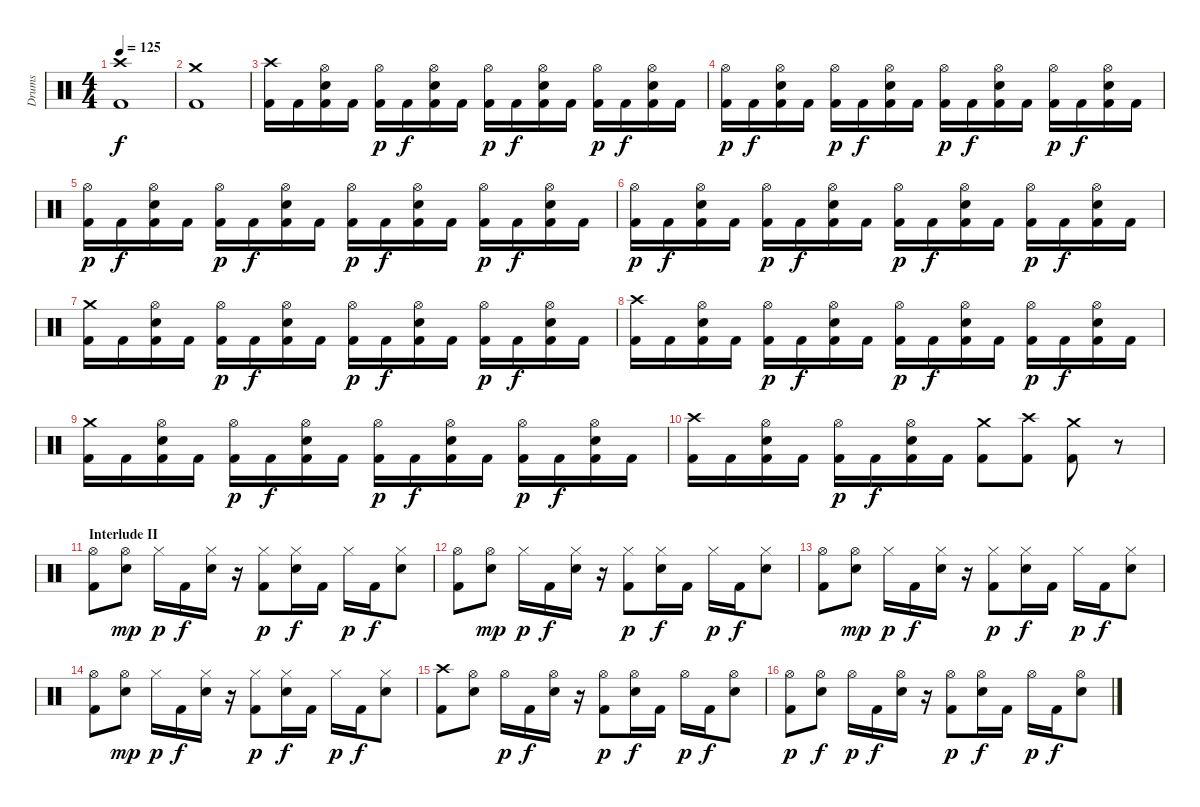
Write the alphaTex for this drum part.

\track ("Drums" "Drums") {instrument percussion}
\staff {score}
\articulation defaults
\ts (4 4)
\tempo 125
\clef neutral
\ks c
("Crash high (hit)" "Kick (hit) 2").1{dy f} |
("Crash medium (hit)" "Kick (hit) 2").1 |
("Crash high (hit)" "Kick (hit) 2").16 "Kick (hit) 2".16 ("Hi-Hat (open)" "Snare (hit) 2" "Kick (hit) 2").16 "Kick (hit) 2".16 ("Hi-Hat (open)" "Kick (hit) 2").16{dy p} "Kick (hit) 2".16{dy f} ("Hi-Hat (open)" "Snare (hit) 2" "Kick (hit) 2").16 "Kick (hit) 2".16 ("Hi-Hat (open)" "Kick (hit) 2").16{dy p} "Kick (hit) 2".16{dy f} ("Hi-Hat (open)" "Snare (hit) 2" "Kick (hit) 2").16 "Kick (hit) 2".16 ("Hi-Hat (open)" "Kick (hit) 2").16{dy p} "Kick (hit) 2".16{dy f} ("Hi-Hat (open)" "Snare (hit) 2" "Kick (hit) 2").16 "Kick (hit) 2".16 |
("Hi-Hat (open)" "Kick (hit) 2").16{dy p} "Kick (hit) 2".16{dy f} ("Hi-Hat (open)" "Snare (hit) 2" "Kick (hit) 2").16 "Kick (hit) 2".16 ("Hi-Hat (open)" "Kick (hit) 2").16{dy p} "Kick (hit) 2".16{dy f} ("Hi-Hat (open)" "Snare (hit) 2" "Kick (hit) 2").16 "Kick (hit) 2".16 ("Hi-Hat (open)" "Kick (hit) 2").16{dy p} "Kick (hit) 2".16{dy f} ("Hi-Hat (open)" "Snare (hit) 2" "Kick (hit) 2").16 "Kick (hit) 2".16 ("Hi-Hat (open)" "Kick (hit) 2").16{dy p} "Kick (hit) 2".16{dy f} ("Hi-Hat (open)" "Snare (hit) 2" "Kick (hit) 2").16 "Kick (hit) 2".16 |
("Hi-Hat (open)" "Kick (hit) 2").16{dy p} "Kick (hit) 2".16{dy f} ("Hi-Hat (open)" "Snare (hit) 2" "Kick (hit) 2").16 "Kick (hit) 2".16 ("Hi-Hat (open)" "Kick (hit) 2").16{dy p} "Kick (hit) 2".16{dy f} ("Hi-Hat (open)" "Snare (hit) 2" "Kick (hit) 2").16 "Kick (hit) 2".16 ("Hi-Hat (open)" "Kick (hit) 2").16{dy p} "Kick (hit) 2".16{dy f} ("Hi-Hat (open)" "Snare (hit) 2" "Kick (hit) 2").16 "Kick (hit) 2".16 ("Hi-Hat (open)" "Kick (hit) 2").16{dy p} "Kick (hit) 2".16{dy f} ("Hi-Hat (open)" "Snare (hit) 2" "Kick (hit) 2").16 "Kick (hit) 2".16 |
("Hi-Hat (open)" "Kick (hit) 2").16{dy p} "Kick (hit) 2".16{dy f} ("Hi-Hat (open)" "Snare (hit) 2" "Kick (hit) 2").16 "Kick (hit) 2".16 ("Hi-Hat (open)" "Kick (hit) 2").16{dy p} "Kick (hit) 2".16{dy f} ("Hi-Hat (open)" "Snare (hit) 2" "Kick (hit) 2").16 "Kick (hit) 2".16 ("Hi-Hat (open)" "Kick (hit) 2").16{dy p} "Kick (hit) 2".16{dy f} ("Hi-Hat (open)" "Snare (hit) 2" "Kick (hit) 2").16 "Kick (hit) 2".16 ("Hi-Hat (open)" "Kick (hit) 2").16{dy p} "Kick (hit) 2".16{dy f} ("Hi-Hat (open)" "Snare (hit) 2" "Kick (hit) 2").16 "Kick (hit) 2".16 |
("Crash medium (hit)" "Kick (hit) 2").16 "Kick (hit) 2".16 ("Hi-Hat (open)" "Snare (hit) 2" "Kick (hit) 2").16 "Kick (hit) 2".16 ("Hi-Hat (open)" "Kick (hit) 2").16{dy p} "Kick (hit) 2".16{dy f} ("Hi-Hat (open)" "Snare (hit) 2" "Kick (hit) 2").16 "Kick (hit) 2".16 ("Hi-Hat (open)" "Kick (hit) 2").16{dy p} "Kick (hit) 2".16{dy f} ("Hi-Hat (open)" "Snare (hit) 2" "Kick (hit) 2").16 "Kick (hit) 2".16 ("Hi-Hat (open)" "Kick (hit) 2").16{dy p} "Kick (hit) 2".16{dy f} ("Hi-Hat (open)" "Snare (hit) 2" "Kick (hit) 2").16 "Kick (hit) 2".16 |
("Crash high (hit)" "Kick (hit) 2").16 "Kick (hit) 2".16 ("Hi-Hat (open)" "Snare (hit) 2" "Kick (hit) 2").16 "Kick (hit) 2".16 ("Hi-Hat (open)" "Kick (hit) 2").16{dy p} "Kick (hit) 2".16{dy f} ("Hi-Hat (open)" "Snare (hit) 2" "Kick (hit) 2").16 "Kick (hit) 2".16 ("Hi-Hat (open)" "Kick (hit) 2").16{dy p} "Kick (hit) 2".16{dy f} ("Hi-Hat (open)" "Snare (hit) 2" "Kick (hit) 2").16 "Kick (hit) 2".16 ("Hi-Hat (open)" "Kick (hit) 2").16{dy p} "Kick (hit) 2".16{dy f} ("Hi-Hat (open)" "Snare (hit) 2" "Kick (hit) 2").16 "Kick (hit) 2".16 |
("Crash medium (hit)" "Kick (hit) 2").16 "Kick (hit) 2".16 ("Hi-Hat (open)" "Snare (hit) 2" "Kick (hit) 2").16 "Kick (hit) 2".16 ("Hi-Hat (open)" "Kick (hit) 2").16{dy p} "Kick (hit) 2".16{dy f} ("Hi-Hat (open)" "Snare (hit) 2" "Kick (hit) 2").16 "Kick (hit) 2".16 ("Hi-Hat (open)" "Kick (hit) 2").16{dy p} "Kick (hit) 2".16{dy f} ("Hi-Hat (open)" "Snare (hit) 2" "Kick (hit) 2").16 "Kick (hit) 2".16 ("Hi-Hat (open)" "Kick (hit) 2").16{dy p} "Kick (hit) 2".16{dy f} ("Hi-Hat (open)" "Snare (hit) 2" "Kick (hit) 2").16 "Kick (hit) 2".16 |
("Crash high (hit)" "Kick (hit) 2").16 "Kick (hit) 2".16 ("Hi-Hat (open)" "Snare (hit) 2" "Kick (hit) 2").16 "Kick (hit) 2".16 ("Hi-Hat (open)" "Kick (hit) 2").16{dy p} "Kick (hit) 2".16{dy f} ("Hi-Hat (open)" "Snare (hit) 2" "Kick (hit) 2").16 "Kick (hit) 2".16 ("Crash medium (hit)" "Kick (hit) 2").8 ("Crash high (hit)" "Kick (hit) 2").8 ("Crash medium (hit)" "Kick (hit) 2").8 r.8 |
\section ("" "Interlude II")
("Hi-Hat (open)" "Kick (hit) 2").8 ("Hi-Hat (open)" "Snare (hit) 2").8{dy mp} "Hi-Hat (closed)".16{dy p} "Kick (hit) 2".16{dy f} ("Hi-Hat (closed)" "Snare (hit) 2").16 r.16 ("Hi-Hat (closed)" "Kick (hit) 2").8{dy p} ("Hi-Hat (closed)" "Snare (hit) 2").16{dy f} "Kick (hit) 2".16 "Hi-Hat (closed)".16{dy p} "Kick (hit) 2".16{dy f} ("Hi-Hat (closed)" "Snare (hit) 2").8 |
("Hi-Hat (open)" "Kick (hit) 2").8 ("Hi-Hat (open)" "Snare (hit) 2").8{dy mp} "Hi-Hat (closed)".16{dy p} "Kick (hit) 2".16{dy f} ("Hi-Hat (closed)" "Snare (hit) 2").16 r.16 ("Hi-Hat (closed)" "Kick (hit) 2").8{dy p} ("Hi-Hat (closed)" "Snare (hit) 2").16{dy f} "Kick (hit) 2".16 "Hi-Hat (closed)".16{dy p} "Kick (hit) 2".16{dy f} ("Hi-Hat (closed)" "Snare (hit) 2").8 |
("Hi-Hat (open)" "Kick (hit) 2").8 ("Hi-Hat (open)" "Snare (hit) 2").8{dy mp} "Hi-Hat (closed)".16{dy p} "Kick (hit) 2".16{dy f} ("Hi-Hat (closed)" "Snare (hit) 2").16 r.16 ("Hi-Hat (closed)" "Kick (hit) 2").8{dy p} ("Hi-Hat (closed)" "Snare (hit) 2").16{dy f} "Kick (hit) 2".16 "Hi-Hat (closed)".16{dy p} "Kick (hit) 2".16{dy f} ("Hi-Hat (closed)" "Snare (hit) 2").8 |
("Hi-Hat (open)" "Kick (hit) 2").8 ("Hi-Hat (open)" "Snare (hit) 2").8{dy mp} "Hi-Hat (closed)".16{dy p} "Kick (hit) 2".16{dy f} ("Hi-Hat (closed)" "Snare (hit) 2").16 r.16 ("Hi-Hat (closed)" "Kick (hit) 2").8{dy p} ("Hi-Hat (closed)" "Snare (hit) 2").16{dy f} "Kick (hit) 2".16 "Hi-Hat (closed)".16{dy p} "Kick (hit) 2".16{dy f} ("Hi-Hat (closed)" "Snare (hit) 2").8 |
("Crash high (hit)" "Kick (hit) 2").8 ("Hi-Hat (open)" "Snare (hit) 2").8 "Hi-Hat (open)".16{dy p} "Kick (hit) 2".16{dy f} ("Hi-Hat (open)" "Snare (hit) 2").16 r.16 ("Hi-Hat (open)" "Kick (hit) 2").8{dy p} ("Hi-Hat (open)" "Snare (hit) 2").16{dy f} "Kick (hit) 2".16 "Hi-Hat (open)".16{dy p} "Kick (hit) 2".16{dy f} ("Hi-Hat (open)" "Snare (hit) 2").8 |
("Hi-Hat (open)" "Kick (hit) 2").8{dy p} ("Hi-Hat (open)" "Snare (hit) 2").8{dy f} "Hi-Hat (open)".16{dy p} "Kick (hit) 2".16{dy f} ("Hi-Hat (open)" "Snare (hit) 2").16 r.16 ("Hi-Hat (open)" "Kick (hit) 2").8{dy p} ("Hi-Hat (open)" "Snare (hit) 2").16{dy f} "Kick (hit) 2".16 "Hi-Hat (open)".16{dy p} "Kick (hit) 2".16{dy f} ("Hi-Hat (open)" "Snare (hit) 2").8
